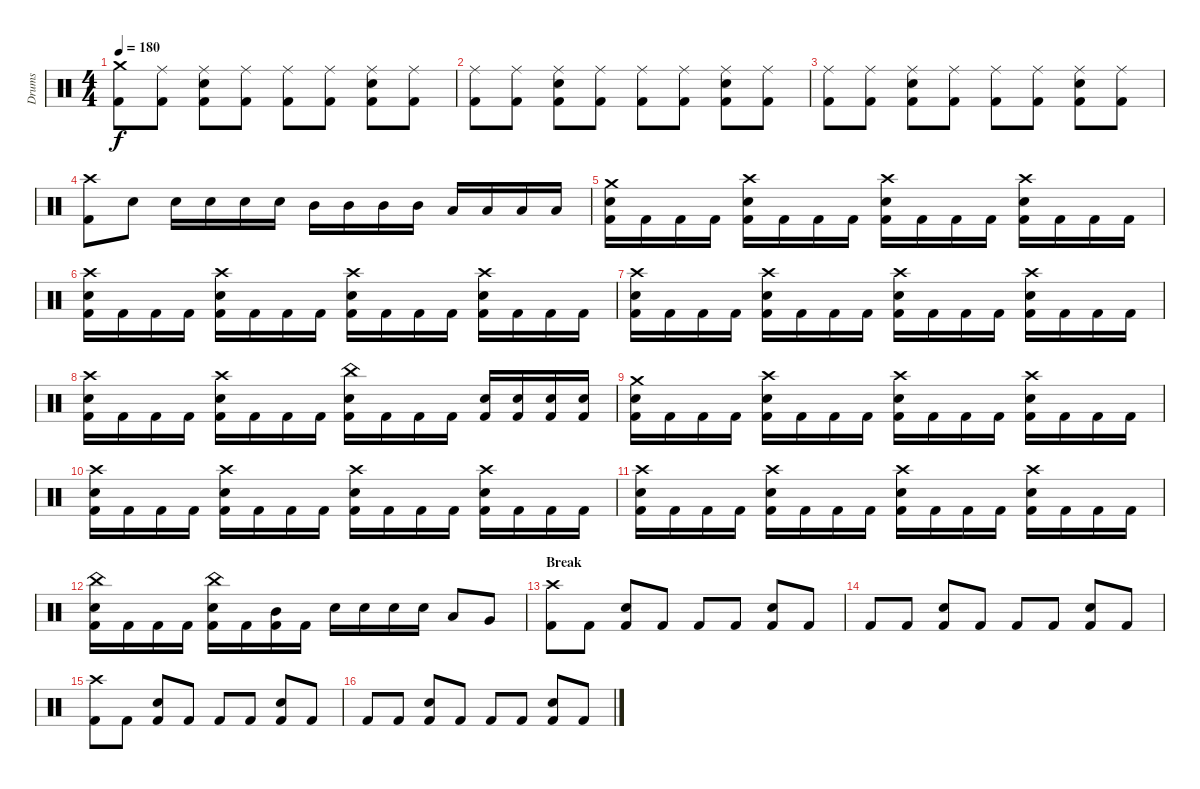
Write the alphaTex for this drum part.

\track ("Drums" "Drums") {instrument percussion}
\staff {score}
\articulation defaults
\ts (4 4)
\tempo 180
\clef neutral
\ks c
("Crash medium (hit)" "Kick (hit) 2").8{dy f} ("Ride (middle)" "Kick (hit) 2").8 ("Ride (middle)" "Snare (hit) 2" "Kick (hit) 2").8 ("Ride (middle)" "Kick (hit) 2").8 ("Ride (middle)" "Kick (hit) 2").8 ("Ride (middle)" "Kick (hit) 2").8 ("Ride (middle)" "Snare (hit) 2" "Kick (hit) 2").8 ("Ride (middle)" "Kick (hit) 2").8 |
("Ride (middle)" "Kick (hit) 2").8 ("Ride (middle)" "Kick (hit) 2").8 ("Ride (middle)" "Snare (hit) 2" "Kick (hit) 2").8 ("Ride (middle)" "Kick (hit) 2").8 ("Ride (middle)" "Kick (hit) 2").8 ("Ride (middle)" "Kick (hit) 2").8 ("Ride (middle)" "Snare (hit) 2" "Kick (hit) 2").8 ("Ride (middle)" "Kick (hit) 2").8 |
("Ride (middle)" "Kick (hit) 2").8 ("Ride (middle)" "Kick (hit) 2").8 ("Ride (middle)" "Snare (hit) 2" "Kick (hit) 2").8 ("Ride (middle)" "Kick (hit) 2").8 ("Ride (middle)" "Kick (hit) 2").8 ("Ride (middle)" "Kick (hit) 2").8 ("Ride (middle)" "Snare (hit) 2" "Kick (hit) 2").8 ("Ride (middle)" "Kick (hit) 2").8 |
("Crash high (hit)" "Kick (hit) 2").8 "Snare (hit) 2".8 "Snare (hit) 2".16 "Snare (hit) 2".16 "Snare (hit) 2".16 "Snare (hit) 2".16 "Mid Tom (hit)".16 "Mid Tom (hit)".16 "Mid Tom (hit)".16 "Mid Tom (hit)".16 "Low Tom (hit)".16 "Low Tom (hit)".16 "Low Tom (hit)".16 "Low Tom (hit)".16 |
("Crash medium (hit)" "Snare (hit) 2" "Kick (hit) 2").16 "Kick (hit) 2".16 "Kick (hit) 2".16 "Kick (hit) 2".16 ("Crash high (hit)" "Snare (hit) 2" "Kick (hit) 2").16 "Kick (hit) 2".16 "Kick (hit) 2".16 "Kick (hit) 2".16 ("Crash high (hit)" "Snare (hit) 2" "Kick (hit) 2").16 "Kick (hit) 2".16 "Kick (hit) 2".16 "Kick (hit) 2".16 ("Crash high (hit)" "Snare (hit) 2" "Kick (hit) 2").16 "Kick (hit) 2".16 "Kick (hit) 2".16 "Kick (hit) 2".16 |
("Crash high (hit)" "Snare (hit) 2" "Kick (hit) 2").16 "Kick (hit) 2".16 "Kick (hit) 2".16 "Kick (hit) 2".16 ("Crash high (hit)" "Snare (hit) 2" "Kick (hit) 2").16 "Kick (hit) 2".16 "Kick (hit) 2".16 "Kick (hit) 2".16 ("Crash high (hit)" "Snare (hit) 2" "Kick (hit) 2").16 "Kick (hit) 2".16 "Kick (hit) 2".16 "Kick (hit) 2".16 ("Crash high (hit)" "Snare (hit) 2" "Kick (hit) 2").16 "Kick (hit) 2".16 "Kick (hit) 2".16 "Kick (hit) 2".16 |
("Crash high (hit)" "Snare (hit) 2" "Kick (hit) 2").16 "Kick (hit) 2".16 "Kick (hit) 2".16 "Kick (hit) 2".16 ("Crash high (hit)" "Snare (hit) 2" "Kick (hit) 2").16 "Kick (hit) 2".16 "Kick (hit) 2".16 "Kick (hit) 2".16 ("Crash high (hit)" "Snare (hit) 2" "Kick (hit) 2").16 "Kick (hit) 2".16 "Kick (hit) 2".16 "Kick (hit) 2".16 ("Crash high (hit)" "Snare (hit) 2" "Kick (hit) 2").16 "Kick (hit) 2".16 "Kick (hit) 2".16 "Kick (hit) 2".16 |
("Crash high (hit)" "Snare (hit) 2" "Kick (hit) 2").16 "Kick (hit) 2".16 "Kick (hit) 2".16 "Kick (hit) 2".16 ("Crash high (hit)" "Snare (hit) 2" "Kick (hit) 2").16 "Kick (hit) 2".16 "Kick (hit) 2".16 "Kick (hit) 2".16 ("China (hit)" "Snare (hit) 2" "Kick (hit) 2").16 "Kick (hit) 2".16 "Kick (hit) 2".16 "Kick (hit) 2".16 ("Snare (hit) 2" "Kick (hit) 2").16 ("Snare (hit) 2" "Kick (hit) 2").16 ("Snare (hit) 2" "Kick (hit) 2").16 ("Snare (hit) 2" "Kick (hit) 2").16 |
("Crash medium (hit)" "Snare (hit) 2" "Kick (hit) 2").16 "Kick (hit) 2".16 "Kick (hit) 2".16 "Kick (hit) 2".16 ("Crash high (hit)" "Snare (hit) 2" "Kick (hit) 2").16 "Kick (hit) 2".16 "Kick (hit) 2".16 "Kick (hit) 2".16 ("Crash high (hit)" "Snare (hit) 2" "Kick (hit) 2").16 "Kick (hit) 2".16 "Kick (hit) 2".16 "Kick (hit) 2".16 ("Crash high (hit)" "Snare (hit) 2" "Kick (hit) 2").16 "Kick (hit) 2".16 "Kick (hit) 2".16 "Kick (hit) 2".16 |
("Crash high (hit)" "Snare (hit) 2" "Kick (hit) 2").16 "Kick (hit) 2".16 "Kick (hit) 2".16 "Kick (hit) 2".16 ("Crash high (hit)" "Snare (hit) 2" "Kick (hit) 2").16 "Kick (hit) 2".16 "Kick (hit) 2".16 "Kick (hit) 2".16 ("Crash high (hit)" "Snare (hit) 2" "Kick (hit) 2").16 "Kick (hit) 2".16 "Kick (hit) 2".16 "Kick (hit) 2".16 ("Crash high (hit)" "Snare (hit) 2" "Kick (hit) 2").16 "Kick (hit) 2".16 "Kick (hit) 2".16 "Kick (hit) 2".16 |
("Crash high (hit)" "Snare (hit) 2" "Kick (hit) 2").16 "Kick (hit) 2".16 "Kick (hit) 2".16 "Kick (hit) 2".16 ("Crash high (hit)" "Snare (hit) 2" "Kick (hit) 2").16 "Kick (hit) 2".16 "Kick (hit) 2".16 "Kick (hit) 2".16 ("Crash high (hit)" "Snare (hit) 2" "Kick (hit) 2").16 "Kick (hit) 2".16 "Kick (hit) 2".16 "Kick (hit) 2".16 ("Crash high (hit)" "Snare (hit) 2" "Kick (hit) 2").16 "Kick (hit) 2".16 "Kick (hit) 2".16 "Kick (hit) 2".16 |
("China (hit)" "Snare (hit) 2" "Kick (hit) 2").16 "Kick (hit) 2".16 "Kick (hit) 2".16 "Kick (hit) 2".16 ("China (hit)" "Snare (hit) 2" "Kick (hit) 2").16 "Kick (hit) 2".16 ("Mid Tom (hit)" "Kick (hit) 2").16 "Kick (hit) 2".16 "Snare (hit) 2".16 "Snare (hit) 2".16 "Snare (hit) 2".16 "Snare (hit) 2".16 "Low Tom (hit)".8 "Very Low Tom (hit)".8 |
\section ("" "Break")
("Crash high (hit)" "Kick (hit) 2").8 "Kick (hit) 2".8 ("Snare (hit) 2" "Kick (hit) 2").8 "Kick (hit) 2".8 "Kick (hit) 2".8 "Kick (hit) 2".8 ("Snare (hit) 2" "Kick (hit) 2").8 "Kick (hit) 2".8 |
"Kick (hit) 2".8 "Kick (hit) 2".8 ("Snare (hit) 2" "Kick (hit) 2").8 "Kick (hit) 2".8 "Kick (hit) 2".8 "Kick (hit) 2".8 ("Snare (hit) 2" "Kick (hit) 2").8 "Kick (hit) 2".8 |
("Crash high (hit)" "Kick (hit) 2").8 "Kick (hit) 2".8 ("Snare (hit) 2" "Kick (hit) 2").8 "Kick (hit) 2".8 "Kick (hit) 2".8 "Kick (hit) 2".8 ("Snare (hit) 2" "Kick (hit) 2").8 "Kick (hit) 2".8 |
"Kick (hit) 2".8 "Kick (hit) 2".8 ("Snare (hit) 2" "Kick (hit) 2").8 "Kick (hit) 2".8 "Kick (hit) 2".8 "Kick (hit) 2".8 ("Snare (hit) 2" "Kick (hit) 2").8 "Kick (hit) 2".8
